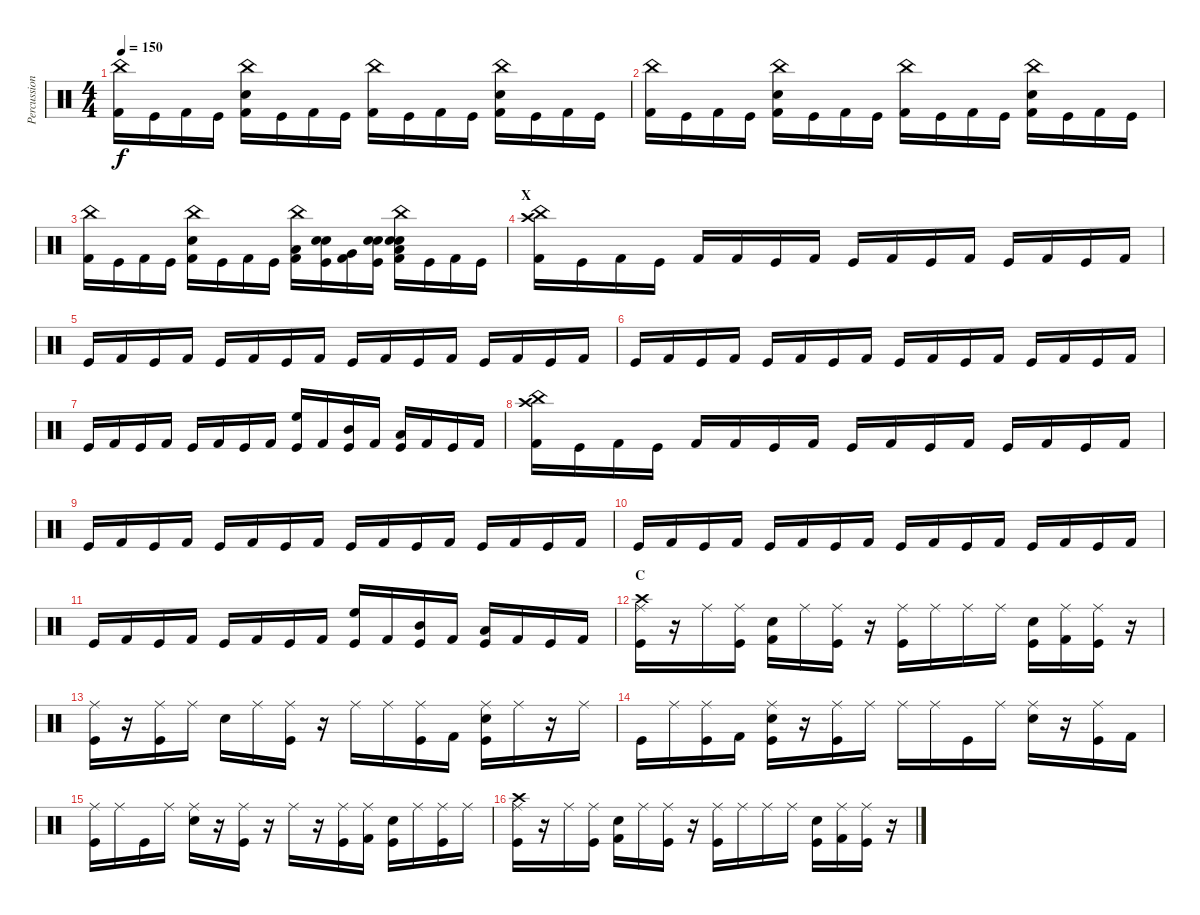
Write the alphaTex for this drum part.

\track ("Percussion" "Percussion") {instrument percussion}
\staff {score}
\articulation defaults
\ts (4 4)
\tempo 150
\clef neutral
\ks c
("China (hit)" "Kick (hit) 2").16{dy f} "Kick (hit)".16 "Kick (hit) 2".16 "Kick (hit)".16 ("China (hit)" "Snare (hit) 2" "Kick (hit) 2").16 "Kick (hit)".16 "Kick (hit) 2".16 "Kick (hit)".16 ("China (hit)" "Kick (hit) 2").16 "Kick (hit)".16 "Kick (hit) 2".16 "Kick (hit)".16 ("China (hit)" "Snare (hit) 2" "Kick (hit) 2").16 "Kick (hit)".16 "Kick (hit) 2".16 "Kick (hit)".16 |
("China (hit)" "Kick (hit) 2").16 "Kick (hit)".16 "Kick (hit) 2".16 "Kick (hit)".16 ("China (hit)" "Snare (hit) 2" "Kick (hit) 2").16 "Kick (hit)".16 "Kick (hit) 2".16 "Kick (hit)".16 ("China (hit)" "Kick (hit) 2").16 "Kick (hit)".16 "Kick (hit) 2".16 "Kick (hit)".16 ("China (hit)" "Snare (hit) 2" "Kick (hit) 2").16 "Kick (hit)".16 "Kick (hit) 2".16 "Kick (hit)".16 |
("China (hit)" "Kick (hit) 2").16 "Kick (hit)".16 "Kick (hit) 2".16 "Kick (hit)".16 ("China (hit)" "Snare (hit) 2" "Kick (hit) 2").16 "Kick (hit)".16 "Kick (hit) 2".16 "Kick (hit)".16 ("China (hit)" "Low Tom (hit)" "Kick (hit) 2").16 ("Electric Snare (hit)" "Snare (hit) 2" "Kick (hit)").16 ("Very Low Tom (hit)" "Kick (hit) 2").16 ("Electric Snare (hit)" "Snare (hit) 2" "Kick (hit)").16 ("China (hit)" "Snare (hit) 2" "Electric Snare (hit)" "Low Floor Tom (hit)" "Kick (hit) 2").16 "Kick (hit)".16 "Kick (hit) 2".16 "Kick (hit)".16 |
\section ("" "X")
("Crash high (hit)" "China (hit)" "Kick (hit) 2").16 "Kick (hit)".16 "Kick (hit) 2".16 "Kick (hit)".16 "Kick (hit) 2".16 "Kick (hit) 2".16 "Kick (hit)".16 "Kick (hit) 2".16 "Kick (hit)".16 "Kick (hit) 2".16 "Kick (hit)".16 "Kick (hit) 2".16 "Kick (hit)".16 "Kick (hit) 2".16 "Kick (hit)".16 "Kick (hit) 2".16 |
"Kick (hit)".16 "Kick (hit) 2".16 "Kick (hit)".16 "Kick (hit) 2".16 "Kick (hit)".16 "Kick (hit) 2".16 "Kick (hit)".16 "Kick (hit) 2".16 "Kick (hit)".16 "Kick (hit) 2".16 "Kick (hit)".16 "Kick (hit) 2".16 "Kick (hit)".16 "Kick (hit) 2".16 "Kick (hit)".16 "Kick (hit) 2".16 |
"Kick (hit)".16 "Kick (hit) 2".16 "Kick (hit)".16 "Kick (hit) 2".16 "Kick (hit)".16 "Kick (hit) 2".16 "Kick (hit)".16 "Kick (hit) 2".16 "Kick (hit)".16 "Kick (hit) 2".16 "Kick (hit)".16 "Kick (hit) 2".16 "Kick (hit)".16 "Kick (hit) 2".16 "Kick (hit)".16 "Kick (hit) 2".16 |
"Kick (hit)".16 "Kick (hit) 2".16 "Kick (hit)".16 "Kick (hit) 2".16 "Kick (hit)".16 "Kick (hit) 2".16 "Kick (hit)".16 "Kick (hit) 2".16 ("High Floor Tom (hit)" "Kick (hit)").16 "Kick (hit) 2".16 ("Mid Tom (hit)" "Kick (hit)").16 "Kick (hit) 2".16 ("Low Floor Tom (hit)" "Kick (hit)").16 "Kick (hit) 2".16 "Kick (hit)".16 "Kick (hit) 2".16 |
("Crash high (hit)" "China (hit)" "Kick (hit) 2").16 "Kick (hit)".16 "Kick (hit) 2".16 "Kick (hit)".16 "Kick (hit) 2".16 "Kick (hit) 2".16 "Kick (hit)".16 "Kick (hit) 2".16 "Kick (hit)".16 "Kick (hit) 2".16 "Kick (hit)".16 "Kick (hit) 2".16 "Kick (hit)".16 "Kick (hit) 2".16 "Kick (hit)".16 "Kick (hit) 2".16 |
"Kick (hit)".16 "Kick (hit) 2".16 "Kick (hit)".16 "Kick (hit) 2".16 "Kick (hit)".16 "Kick (hit) 2".16 "Kick (hit)".16 "Kick (hit) 2".16 "Kick (hit)".16 "Kick (hit) 2".16 "Kick (hit)".16 "Kick (hit) 2".16 "Kick (hit)".16 "Kick (hit) 2".16 "Kick (hit)".16 "Kick (hit) 2".16 |
"Kick (hit)".16 "Kick (hit) 2".16 "Kick (hit)".16 "Kick (hit) 2".16 "Kick (hit)".16 "Kick (hit) 2".16 "Kick (hit)".16 "Kick (hit) 2".16 "Kick (hit)".16 "Kick (hit) 2".16 "Kick (hit)".16 "Kick (hit) 2".16 "Kick (hit)".16 "Kick (hit) 2".16 "Kick (hit)".16 "Kick (hit) 2".16 |
"Kick (hit)".16 "Kick (hit) 2".16 "Kick (hit)".16 "Kick (hit) 2".16 "Kick (hit)".16 "Kick (hit) 2".16 "Kick (hit)".16 "Kick (hit) 2".16 ("High Floor Tom (hit)" "Kick (hit)").16 "Kick (hit) 2".16 ("Mid Tom (hit)" "Kick (hit)").16 "Kick (hit) 2".16 ("Low Floor Tom (hit)" "Kick (hit)").16 "Kick (hit) 2".16 "Kick (hit)".16 "Kick (hit) 2".16 |
\section ("" "C")
("Ride (middle)" "Crash high (hit)" "Kick (hit)").16 r.16 "Ride (middle)".16 ("Ride (middle)" "Kick (hit)").16 ("Snare (hit) 2" "Kick (hit) 2").16 "Ride (middle)".16 ("Ride (middle)" "Kick (hit)").16 r.16 ("Ride (middle)" "Kick (hit)").16 "Ride (middle)".16 "Ride (middle)".16 "Ride (middle)".16 ("Snare (hit) 2" "Kick (hit)").16 ("Ride (middle)" "Kick (hit) 2").16 ("Ride (middle)" "Kick (hit)").16 r.16 |
("Ride (middle)" "Kick (hit)").16 r.16 ("Ride (middle)" "Kick (hit)").16 "Ride (middle)".16 "Snare (hit) 2".16 "Ride (middle)".16 ("Ride (middle)" "Kick (hit)").16 r.16 "Ride (middle)".16 "Ride (middle)".16 ("Ride (middle)" "Kick (hit)").16 "Kick (hit) 2".16 ("Ride (middle)" "Snare (hit) 2" "Kick (hit)").16 "Ride (middle)".16 r.16 "Ride (middle)".16 |
"Kick (hit)".16 "Ride (middle)".16 ("Ride (middle)" "Kick (hit)").16 "Kick (hit) 2".16 ("Ride (middle)" "Snare (hit) 2" "Kick (hit)").16 r.16 ("Ride (middle)" "Kick (hit)").16 "Ride (middle)".16 "Ride (middle)".16 "Ride (middle)".16 "Kick (hit)".16 "Ride (middle)".16 ("Ride (middle)" "Snare (hit) 2").16 r.16 ("Ride (middle)" "Kick (hit)").16 "Kick (hit) 2".16 |
("Ride (middle)" "Kick (hit)").16 "Ride (middle)".16 "Kick (hit)".16 "Ride (middle)".16 ("Ride (middle)" "Snare (hit) 2").16 r.16 ("Ride (middle)" "Kick (hit)").16 r.16 "Ride (middle)".16 r.16 ("Ride (middle)" "Kick (hit)").16 ("Ride (middle)" "Kick (hit) 2").16 ("Snare (hit) 2" "Kick (hit)").16 "Ride (middle)".16 ("Ride (middle)" "Kick (hit)").16 "Ride (middle)".16 |
("Ride (middle)" "Crash high (hit)" "Kick (hit)").16 r.16 "Ride (middle)".16 ("Ride (middle)" "Kick (hit)").16 ("Snare (hit) 2" "Kick (hit) 2").16 "Ride (middle)".16 ("Ride (middle)" "Kick (hit)").16 r.16 ("Ride (middle)" "Kick (hit)").16 "Ride (middle)".16 "Ride (middle)".16 "Ride (middle)".16 ("Snare (hit) 2" "Kick (hit)").16 ("Ride (middle)" "Kick (hit) 2").16 ("Ride (middle)" "Kick (hit)").16 r.16
